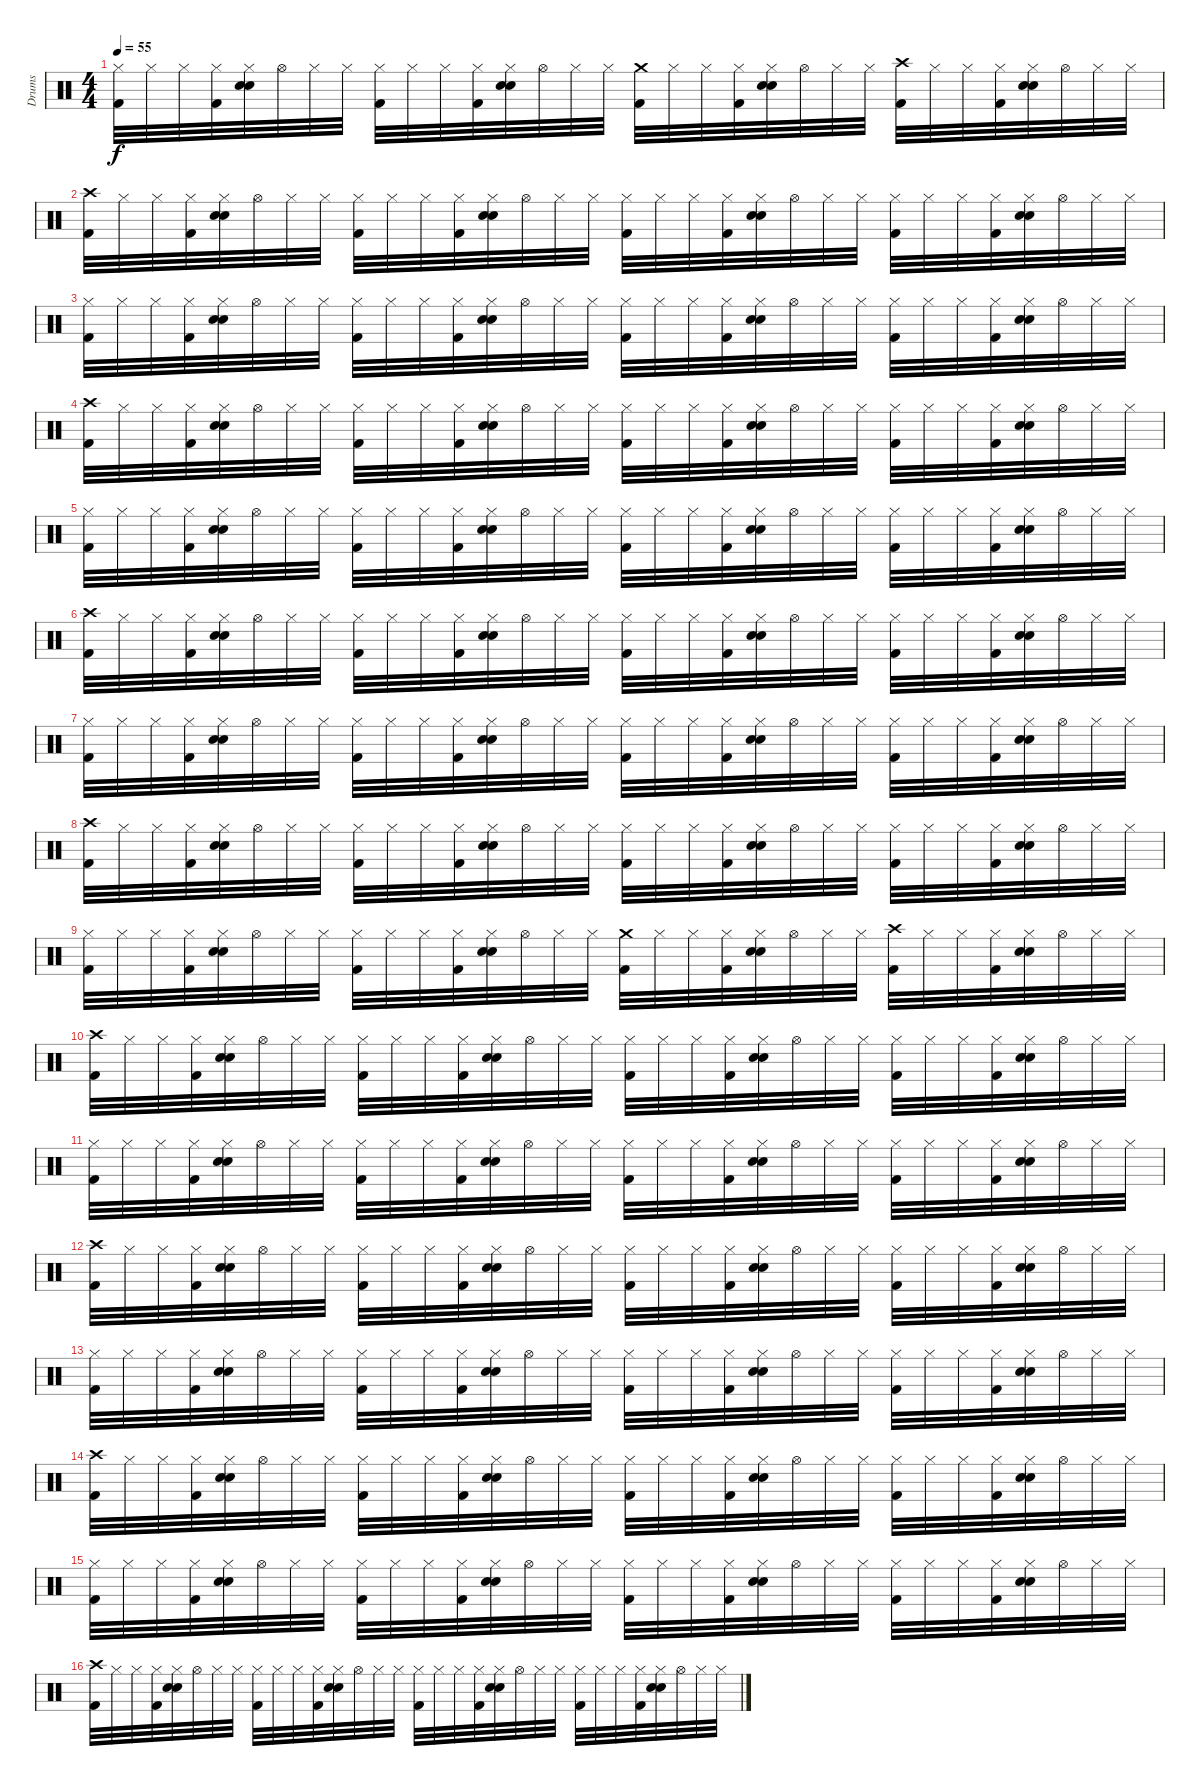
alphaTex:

\track ("Drums" "Drums") {instrument percussion}
\staff {score}
\articulation defaults
\ts (4 4)
\tempo 55
\clef neutral
\ks c
("Hi-Hat (closed)" "Kick (hit) 2").32{dy f} "Hi-Hat (closed)".32 "Hi-Hat (closed)".32 ("Hi-Hat (closed)" "Kick (hit) 2").32 ("Hi-Hat (closed)" "Snare (hit) 2" "Electric Snare (hit)").32 "Hi-Hat (open)".32 "Hi-Hat (closed)".32 "Hi-Hat (closed)".32 ("Hi-Hat (closed)" "Kick (hit) 2").32 "Hi-Hat (closed)".32 "Hi-Hat (closed)".32 ("Hi-Hat (closed)" "Kick (hit) 2").32 ("Hi-Hat (closed)" "Snare (hit) 2" "Electric Snare (hit)").32 "Hi-Hat (open)".32 "Hi-Hat (closed)".32 "Hi-Hat (closed)".32 ("Crash medium (hit)" "Kick (hit) 2").32 "Hi-Hat (closed)".32 "Hi-Hat (closed)".32 ("Hi-Hat (closed)" "Kick (hit) 2").32 ("Hi-Hat (closed)" "Snare (hit) 2" "Electric Snare (hit)").32 "Hi-Hat (open)".32 "Hi-Hat (closed)".32 "Hi-Hat (closed)".32 ("Crash high (hit)" "Kick (hit) 2").32 "Hi-Hat (closed)".32 "Hi-Hat (closed)".32 ("Hi-Hat (closed)" "Kick (hit) 2").32 ("Hi-Hat (closed)" "Snare (hit) 2" "Electric Snare (hit)").32 "Hi-Hat (open)".32 "Hi-Hat (closed)".32 "Hi-Hat (closed)".32 |
("Crash high (hit)" "Kick (hit) 2").32 "Hi-Hat (closed)".32 "Hi-Hat (closed)".32 ("Hi-Hat (closed)" "Kick (hit) 2").32 ("Hi-Hat (closed)" "Snare (hit) 2" "Electric Snare (hit)").32 "Hi-Hat (open)".32 "Hi-Hat (closed)".32 "Hi-Hat (closed)".32 ("Hi-Hat (closed)" "Kick (hit) 2").32 "Hi-Hat (closed)".32 "Hi-Hat (closed)".32 ("Hi-Hat (closed)" "Kick (hit) 2").32 ("Hi-Hat (closed)" "Snare (hit) 2" "Electric Snare (hit)").32 "Hi-Hat (open)".32 "Hi-Hat (closed)".32 "Hi-Hat (closed)".32 ("Hi-Hat (closed)" "Kick (hit) 2").32 "Hi-Hat (closed)".32 "Hi-Hat (closed)".32 ("Hi-Hat (closed)" "Kick (hit) 2").32 ("Hi-Hat (closed)" "Snare (hit) 2" "Electric Snare (hit)").32 "Hi-Hat (open)".32 "Hi-Hat (closed)".32 "Hi-Hat (closed)".32 ("Hi-Hat (closed)" "Kick (hit) 2").32 "Hi-Hat (closed)".32 "Hi-Hat (closed)".32 ("Hi-Hat (closed)" "Kick (hit) 2").32 ("Hi-Hat (closed)" "Snare (hit) 2" "Electric Snare (hit)").32 "Hi-Hat (open)".32 "Hi-Hat (closed)".32 "Hi-Hat (closed)".32 |
("Hi-Hat (closed)" "Kick (hit) 2").32 "Hi-Hat (closed)".32 "Hi-Hat (closed)".32 ("Hi-Hat (closed)" "Kick (hit) 2").32 ("Hi-Hat (closed)" "Snare (hit) 2" "Electric Snare (hit)").32 "Hi-Hat (open)".32 "Hi-Hat (closed)".32 "Hi-Hat (closed)".32 ("Hi-Hat (closed)" "Kick (hit) 2").32 "Hi-Hat (closed)".32 "Hi-Hat (closed)".32 ("Hi-Hat (closed)" "Kick (hit) 2").32 ("Hi-Hat (closed)" "Snare (hit) 2" "Electric Snare (hit)").32 "Hi-Hat (open)".32 "Hi-Hat (closed)".32 "Hi-Hat (closed)".32 ("Hi-Hat (closed)" "Kick (hit) 2").32 "Hi-Hat (closed)".32 "Hi-Hat (closed)".32 ("Hi-Hat (closed)" "Kick (hit) 2").32 ("Hi-Hat (closed)" "Snare (hit) 2" "Electric Snare (hit)").32 "Hi-Hat (open)".32 "Hi-Hat (closed)".32 "Hi-Hat (closed)".32 ("Hi-Hat (closed)" "Kick (hit) 2").32 "Hi-Hat (closed)".32 "Hi-Hat (closed)".32 ("Hi-Hat (closed)" "Kick (hit) 2").32 ("Hi-Hat (closed)" "Snare (hit) 2" "Electric Snare (hit)").32 "Hi-Hat (open)".32 "Hi-Hat (closed)".32 "Hi-Hat (closed)".32 |
("Crash high (hit)" "Kick (hit) 2").32 "Hi-Hat (closed)".32 "Hi-Hat (closed)".32 ("Hi-Hat (closed)" "Kick (hit) 2").32 ("Hi-Hat (closed)" "Snare (hit) 2" "Electric Snare (hit)").32 "Hi-Hat (open)".32 "Hi-Hat (closed)".32 "Hi-Hat (closed)".32 ("Hi-Hat (closed)" "Kick (hit) 2").32 "Hi-Hat (closed)".32 "Hi-Hat (closed)".32 ("Hi-Hat (closed)" "Kick (hit) 2").32 ("Hi-Hat (closed)" "Snare (hit) 2" "Electric Snare (hit)").32 "Hi-Hat (open)".32 "Hi-Hat (closed)".32 "Hi-Hat (closed)".32 ("Hi-Hat (closed)" "Kick (hit) 2").32 "Hi-Hat (closed)".32 "Hi-Hat (closed)".32 ("Hi-Hat (closed)" "Kick (hit) 2").32 ("Hi-Hat (closed)" "Snare (hit) 2" "Electric Snare (hit)").32 "Hi-Hat (open)".32 "Hi-Hat (closed)".32 "Hi-Hat (closed)".32 ("Hi-Hat (closed)" "Kick (hit) 2").32 "Hi-Hat (closed)".32 "Hi-Hat (closed)".32 ("Hi-Hat (closed)" "Kick (hit) 2").32 ("Hi-Hat (closed)" "Snare (hit) 2" "Electric Snare (hit)").32 "Hi-Hat (open)".32 "Hi-Hat (closed)".32 "Hi-Hat (closed)".32 |
("Hi-Hat (closed)" "Kick (hit) 2").32 "Hi-Hat (closed)".32 "Hi-Hat (closed)".32 ("Hi-Hat (closed)" "Kick (hit) 2").32 ("Hi-Hat (closed)" "Snare (hit) 2" "Electric Snare (hit)").32 "Hi-Hat (open)".32 "Hi-Hat (closed)".32 "Hi-Hat (closed)".32 ("Hi-Hat (closed)" "Kick (hit) 2").32 "Hi-Hat (closed)".32 "Hi-Hat (closed)".32 ("Hi-Hat (closed)" "Kick (hit) 2").32 ("Hi-Hat (closed)" "Snare (hit) 2" "Electric Snare (hit)").32 "Hi-Hat (open)".32 "Hi-Hat (closed)".32 "Hi-Hat (closed)".32 ("Hi-Hat (closed)" "Kick (hit) 2").32 "Hi-Hat (closed)".32 "Hi-Hat (closed)".32 ("Hi-Hat (closed)" "Kick (hit) 2").32 ("Hi-Hat (closed)" "Snare (hit) 2" "Electric Snare (hit)").32 "Hi-Hat (open)".32 "Hi-Hat (closed)".32 "Hi-Hat (closed)".32 ("Hi-Hat (closed)" "Kick (hit) 2").32 "Hi-Hat (closed)".32 "Hi-Hat (closed)".32 ("Hi-Hat (closed)" "Kick (hit) 2").32 ("Hi-Hat (closed)" "Snare (hit) 2" "Electric Snare (hit)").32 "Hi-Hat (open)".32 "Hi-Hat (closed)".32 "Hi-Hat (closed)".32 |
("Crash high (hit)" "Kick (hit) 2").32 "Hi-Hat (closed)".32 "Hi-Hat (closed)".32 ("Hi-Hat (closed)" "Kick (hit) 2").32 ("Hi-Hat (closed)" "Snare (hit) 2" "Electric Snare (hit)").32 "Hi-Hat (open)".32 "Hi-Hat (closed)".32 "Hi-Hat (closed)".32 ("Hi-Hat (closed)" "Kick (hit) 2").32 "Hi-Hat (closed)".32 "Hi-Hat (closed)".32 ("Hi-Hat (closed)" "Kick (hit) 2").32 ("Hi-Hat (closed)" "Snare (hit) 2" "Electric Snare (hit)").32 "Hi-Hat (open)".32 "Hi-Hat (closed)".32 "Hi-Hat (closed)".32 ("Hi-Hat (closed)" "Kick (hit) 2").32 "Hi-Hat (closed)".32 "Hi-Hat (closed)".32 ("Hi-Hat (closed)" "Kick (hit) 2").32 ("Hi-Hat (closed)" "Snare (hit) 2" "Electric Snare (hit)").32 "Hi-Hat (open)".32 "Hi-Hat (closed)".32 "Hi-Hat (closed)".32 ("Hi-Hat (closed)" "Kick (hit) 2").32 "Hi-Hat (closed)".32 "Hi-Hat (closed)".32 ("Hi-Hat (closed)" "Kick (hit) 2").32 ("Hi-Hat (closed)" "Snare (hit) 2" "Electric Snare (hit)").32 "Hi-Hat (open)".32 "Hi-Hat (closed)".32 "Hi-Hat (closed)".32 |
("Hi-Hat (closed)" "Kick (hit) 2").32 "Hi-Hat (closed)".32 "Hi-Hat (closed)".32 ("Hi-Hat (closed)" "Kick (hit) 2").32 ("Hi-Hat (closed)" "Snare (hit) 2" "Electric Snare (hit)").32 "Hi-Hat (open)".32 "Hi-Hat (closed)".32 "Hi-Hat (closed)".32 ("Hi-Hat (closed)" "Kick (hit) 2").32 "Hi-Hat (closed)".32 "Hi-Hat (closed)".32 ("Hi-Hat (closed)" "Kick (hit) 2").32 ("Hi-Hat (closed)" "Snare (hit) 2" "Electric Snare (hit)").32 "Hi-Hat (open)".32 "Hi-Hat (closed)".32 "Hi-Hat (closed)".32 ("Hi-Hat (closed)" "Kick (hit) 2").32 "Hi-Hat (closed)".32 "Hi-Hat (closed)".32 ("Hi-Hat (closed)" "Kick (hit) 2").32 ("Hi-Hat (closed)" "Snare (hit) 2" "Electric Snare (hit)").32 "Hi-Hat (open)".32 "Hi-Hat (closed)".32 "Hi-Hat (closed)".32 ("Hi-Hat (closed)" "Kick (hit) 2").32 "Hi-Hat (closed)".32 "Hi-Hat (closed)".32 ("Hi-Hat (closed)" "Kick (hit) 2").32 ("Hi-Hat (closed)" "Snare (hit) 2" "Electric Snare (hit)").32 "Hi-Hat (open)".32 "Hi-Hat (closed)".32 "Hi-Hat (closed)".32 |
("Crash high (hit)" "Kick (hit) 2").32 "Hi-Hat (closed)".32 "Hi-Hat (closed)".32 ("Hi-Hat (closed)" "Kick (hit) 2").32 ("Hi-Hat (closed)" "Snare (hit) 2" "Electric Snare (hit)").32 "Hi-Hat (open)".32 "Hi-Hat (closed)".32 "Hi-Hat (closed)".32 ("Hi-Hat (closed)" "Kick (hit) 2").32 "Hi-Hat (closed)".32 "Hi-Hat (closed)".32 ("Hi-Hat (closed)" "Kick (hit) 2").32 ("Hi-Hat (closed)" "Snare (hit) 2" "Electric Snare (hit)").32 "Hi-Hat (open)".32 "Hi-Hat (closed)".32 "Hi-Hat (closed)".32 ("Hi-Hat (closed)" "Kick (hit) 2").32 "Hi-Hat (closed)".32 "Hi-Hat (closed)".32 ("Hi-Hat (closed)" "Kick (hit) 2").32 ("Hi-Hat (closed)" "Snare (hit) 2" "Electric Snare (hit)").32 "Hi-Hat (open)".32 "Hi-Hat (closed)".32 "Hi-Hat (closed)".32 ("Hi-Hat (closed)" "Kick (hit) 2").32 "Hi-Hat (closed)".32 "Hi-Hat (closed)".32 ("Hi-Hat (closed)" "Kick (hit) 2").32 ("Hi-Hat (closed)" "Snare (hit) 2" "Electric Snare (hit)").32 "Hi-Hat (open)".32 "Hi-Hat (closed)".32 "Hi-Hat (closed)".32 |
("Hi-Hat (closed)" "Kick (hit) 2").32 "Hi-Hat (closed)".32 "Hi-Hat (closed)".32 ("Hi-Hat (closed)" "Kick (hit) 2").32 ("Hi-Hat (closed)" "Snare (hit) 2" "Electric Snare (hit)").32 "Hi-Hat (open)".32 "Hi-Hat (closed)".32 "Hi-Hat (closed)".32 ("Hi-Hat (closed)" "Kick (hit) 2").32 "Hi-Hat (closed)".32 "Hi-Hat (closed)".32 ("Hi-Hat (closed)" "Kick (hit) 2").32 ("Hi-Hat (closed)" "Snare (hit) 2" "Electric Snare (hit)").32 "Hi-Hat (open)".32 "Hi-Hat (closed)".32 "Hi-Hat (closed)".32 ("Crash medium (hit)" "Kick (hit) 2").32 "Hi-Hat (closed)".32 "Hi-Hat (closed)".32 ("Hi-Hat (closed)" "Kick (hit) 2").32 ("Hi-Hat (closed)" "Snare (hit) 2" "Electric Snare (hit)").32 "Hi-Hat (open)".32 "Hi-Hat (closed)".32 "Hi-Hat (closed)".32 ("Crash high (hit)" "Kick (hit) 2").32 "Hi-Hat (closed)".32 "Hi-Hat (closed)".32 ("Hi-Hat (closed)" "Kick (hit) 2").32 ("Hi-Hat (closed)" "Snare (hit) 2" "Electric Snare (hit)").32 "Hi-Hat (open)".32 "Hi-Hat (closed)".32 "Hi-Hat (closed)".32 |
("Crash high (hit)" "Kick (hit) 2").32 "Hi-Hat (closed)".32 "Hi-Hat (closed)".32 ("Hi-Hat (closed)" "Kick (hit) 2").32 ("Hi-Hat (closed)" "Snare (hit) 2" "Electric Snare (hit)").32 "Hi-Hat (open)".32 "Hi-Hat (closed)".32 "Hi-Hat (closed)".32 ("Hi-Hat (closed)" "Kick (hit) 2").32 "Hi-Hat (closed)".32 "Hi-Hat (closed)".32 ("Hi-Hat (closed)" "Kick (hit) 2").32 ("Hi-Hat (closed)" "Snare (hit) 2" "Electric Snare (hit)").32 "Hi-Hat (open)".32 "Hi-Hat (closed)".32 "Hi-Hat (closed)".32 ("Hi-Hat (closed)" "Kick (hit) 2").32 "Hi-Hat (closed)".32 "Hi-Hat (closed)".32 ("Hi-Hat (closed)" "Kick (hit) 2").32 ("Hi-Hat (closed)" "Snare (hit) 2" "Electric Snare (hit)").32 "Hi-Hat (open)".32 "Hi-Hat (closed)".32 "Hi-Hat (closed)".32 ("Hi-Hat (closed)" "Kick (hit) 2").32 "Hi-Hat (closed)".32 "Hi-Hat (closed)".32 ("Hi-Hat (closed)" "Kick (hit) 2").32 ("Hi-Hat (closed)" "Snare (hit) 2" "Electric Snare (hit)").32 "Hi-Hat (open)".32 "Hi-Hat (closed)".32 "Hi-Hat (closed)".32 |
("Hi-Hat (closed)" "Kick (hit) 2").32 "Hi-Hat (closed)".32 "Hi-Hat (closed)".32 ("Hi-Hat (closed)" "Kick (hit) 2").32 ("Hi-Hat (closed)" "Snare (hit) 2" "Electric Snare (hit)").32 "Hi-Hat (open)".32 "Hi-Hat (closed)".32 "Hi-Hat (closed)".32 ("Hi-Hat (closed)" "Kick (hit) 2").32 "Hi-Hat (closed)".32 "Hi-Hat (closed)".32 ("Hi-Hat (closed)" "Kick (hit) 2").32 ("Hi-Hat (closed)" "Snare (hit) 2" "Electric Snare (hit)").32 "Hi-Hat (open)".32 "Hi-Hat (closed)".32 "Hi-Hat (closed)".32 ("Hi-Hat (closed)" "Kick (hit) 2").32 "Hi-Hat (closed)".32 "Hi-Hat (closed)".32 ("Hi-Hat (closed)" "Kick (hit) 2").32 ("Hi-Hat (closed)" "Snare (hit) 2" "Electric Snare (hit)").32 "Hi-Hat (open)".32 "Hi-Hat (closed)".32 "Hi-Hat (closed)".32 ("Hi-Hat (closed)" "Kick (hit) 2").32 "Hi-Hat (closed)".32 "Hi-Hat (closed)".32 ("Hi-Hat (closed)" "Kick (hit) 2").32 ("Hi-Hat (closed)" "Snare (hit) 2" "Electric Snare (hit)").32 "Hi-Hat (open)".32 "Hi-Hat (closed)".32 "Hi-Hat (closed)".32 |
("Crash high (hit)" "Kick (hit) 2").32 "Hi-Hat (closed)".32 "Hi-Hat (closed)".32 ("Hi-Hat (closed)" "Kick (hit) 2").32 ("Hi-Hat (closed)" "Snare (hit) 2" "Electric Snare (hit)").32 "Hi-Hat (open)".32 "Hi-Hat (closed)".32 "Hi-Hat (closed)".32 ("Hi-Hat (closed)" "Kick (hit) 2").32 "Hi-Hat (closed)".32 "Hi-Hat (closed)".32 ("Hi-Hat (closed)" "Kick (hit) 2").32 ("Hi-Hat (closed)" "Snare (hit) 2" "Electric Snare (hit)").32 "Hi-Hat (open)".32 "Hi-Hat (closed)".32 "Hi-Hat (closed)".32 ("Hi-Hat (closed)" "Kick (hit) 2").32 "Hi-Hat (closed)".32 "Hi-Hat (closed)".32 ("Hi-Hat (closed)" "Kick (hit) 2").32 ("Hi-Hat (closed)" "Snare (hit) 2" "Electric Snare (hit)").32 "Hi-Hat (open)".32 "Hi-Hat (closed)".32 "Hi-Hat (closed)".32 ("Hi-Hat (closed)" "Kick (hit) 2").32 "Hi-Hat (closed)".32 "Hi-Hat (closed)".32 ("Hi-Hat (closed)" "Kick (hit) 2").32 ("Hi-Hat (closed)" "Snare (hit) 2" "Electric Snare (hit)").32 "Hi-Hat (open)".32 "Hi-Hat (closed)".32 "Hi-Hat (closed)".32 |
("Hi-Hat (closed)" "Kick (hit) 2").32 "Hi-Hat (closed)".32 "Hi-Hat (closed)".32 ("Hi-Hat (closed)" "Kick (hit) 2").32 ("Hi-Hat (closed)" "Snare (hit) 2" "Electric Snare (hit)").32 "Hi-Hat (open)".32 "Hi-Hat (closed)".32 "Hi-Hat (closed)".32 ("Hi-Hat (closed)" "Kick (hit) 2").32 "Hi-Hat (closed)".32 "Hi-Hat (closed)".32 ("Hi-Hat (closed)" "Kick (hit) 2").32 ("Hi-Hat (closed)" "Snare (hit) 2" "Electric Snare (hit)").32 "Hi-Hat (open)".32 "Hi-Hat (closed)".32 "Hi-Hat (closed)".32 ("Hi-Hat (closed)" "Kick (hit) 2").32 "Hi-Hat (closed)".32 "Hi-Hat (closed)".32 ("Hi-Hat (closed)" "Kick (hit) 2").32 ("Hi-Hat (closed)" "Snare (hit) 2" "Electric Snare (hit)").32 "Hi-Hat (open)".32 "Hi-Hat (closed)".32 "Hi-Hat (closed)".32 ("Hi-Hat (closed)" "Kick (hit) 2").32 "Hi-Hat (closed)".32 "Hi-Hat (closed)".32 ("Hi-Hat (closed)" "Kick (hit) 2").32 ("Hi-Hat (closed)" "Snare (hit) 2" "Electric Snare (hit)").32 "Hi-Hat (open)".32 "Hi-Hat (closed)".32 "Hi-Hat (closed)".32 |
("Crash high (hit)" "Kick (hit) 2").32 "Hi-Hat (closed)".32 "Hi-Hat (closed)".32 ("Hi-Hat (closed)" "Kick (hit) 2").32 ("Hi-Hat (closed)" "Snare (hit) 2" "Electric Snare (hit)").32 "Hi-Hat (open)".32 "Hi-Hat (closed)".32 "Hi-Hat (closed)".32 ("Hi-Hat (closed)" "Kick (hit) 2").32 "Hi-Hat (closed)".32 "Hi-Hat (closed)".32 ("Hi-Hat (closed)" "Kick (hit) 2").32 ("Hi-Hat (closed)" "Snare (hit) 2" "Electric Snare (hit)").32 "Hi-Hat (open)".32 "Hi-Hat (closed)".32 "Hi-Hat (closed)".32 ("Hi-Hat (closed)" "Kick (hit) 2").32 "Hi-Hat (closed)".32 "Hi-Hat (closed)".32 ("Hi-Hat (closed)" "Kick (hit) 2").32 ("Hi-Hat (closed)" "Snare (hit) 2" "Electric Snare (hit)").32 "Hi-Hat (open)".32 "Hi-Hat (closed)".32 "Hi-Hat (closed)".32 ("Hi-Hat (closed)" "Kick (hit) 2").32 "Hi-Hat (closed)".32 "Hi-Hat (closed)".32 ("Hi-Hat (closed)" "Kick (hit) 2").32 ("Hi-Hat (closed)" "Snare (hit) 2" "Electric Snare (hit)").32 "Hi-Hat (open)".32 "Hi-Hat (closed)".32 "Hi-Hat (closed)".32 |
("Hi-Hat (closed)" "Kick (hit) 2").32 "Hi-Hat (closed)".32 "Hi-Hat (closed)".32 ("Hi-Hat (closed)" "Kick (hit) 2").32 ("Hi-Hat (closed)" "Snare (hit) 2" "Electric Snare (hit)").32 "Hi-Hat (open)".32 "Hi-Hat (closed)".32 "Hi-Hat (closed)".32 ("Hi-Hat (closed)" "Kick (hit) 2").32 "Hi-Hat (closed)".32 "Hi-Hat (closed)".32 ("Hi-Hat (closed)" "Kick (hit) 2").32 ("Hi-Hat (closed)" "Snare (hit) 2" "Electric Snare (hit)").32 "Hi-Hat (open)".32 "Hi-Hat (closed)".32 "Hi-Hat (closed)".32 ("Hi-Hat (closed)" "Kick (hit) 2").32 "Hi-Hat (closed)".32 "Hi-Hat (closed)".32 ("Hi-Hat (closed)" "Kick (hit) 2").32 ("Hi-Hat (closed)" "Snare (hit) 2" "Electric Snare (hit)").32 "Hi-Hat (open)".32 "Hi-Hat (closed)".32 "Hi-Hat (closed)".32 ("Hi-Hat (closed)" "Kick (hit) 2").32 "Hi-Hat (closed)".32 "Hi-Hat (closed)".32 ("Hi-Hat (closed)" "Kick (hit) 2").32 ("Hi-Hat (closed)" "Snare (hit) 2" "Electric Snare (hit)").32 "Hi-Hat (open)".32 "Hi-Hat (closed)".32 "Hi-Hat (closed)".32 |
("Crash high (hit)" "Kick (hit) 2").32 "Hi-Hat (closed)".32 "Hi-Hat (closed)".32 ("Hi-Hat (closed)" "Kick (hit) 2").32 ("Hi-Hat (closed)" "Snare (hit) 2" "Electric Snare (hit)").32 "Hi-Hat (open)".32 "Hi-Hat (closed)".32 "Hi-Hat (closed)".32 ("Hi-Hat (closed)" "Kick (hit) 2").32 "Hi-Hat (closed)".32 "Hi-Hat (closed)".32 ("Hi-Hat (closed)" "Kick (hit) 2").32 ("Hi-Hat (closed)" "Snare (hit) 2" "Electric Snare (hit)").32 "Hi-Hat (open)".32 "Hi-Hat (closed)".32 "Hi-Hat (closed)".32 ("Hi-Hat (closed)" "Kick (hit) 2").32 "Hi-Hat (closed)".32 "Hi-Hat (closed)".32 ("Hi-Hat (closed)" "Kick (hit) 2").32 ("Hi-Hat (closed)" "Snare (hit) 2" "Electric Snare (hit)").32 "Hi-Hat (open)".32 "Hi-Hat (closed)".32 "Hi-Hat (closed)".32 ("Hi-Hat (closed)" "Kick (hit) 2").32 "Hi-Hat (closed)".32 "Hi-Hat (closed)".32 ("Hi-Hat (closed)" "Kick (hit) 2").32 ("Hi-Hat (closed)" "Snare (hit) 2" "Electric Snare (hit)").32 "Hi-Hat (open)".32 "Hi-Hat (closed)".32 "Hi-Hat (closed)".32
